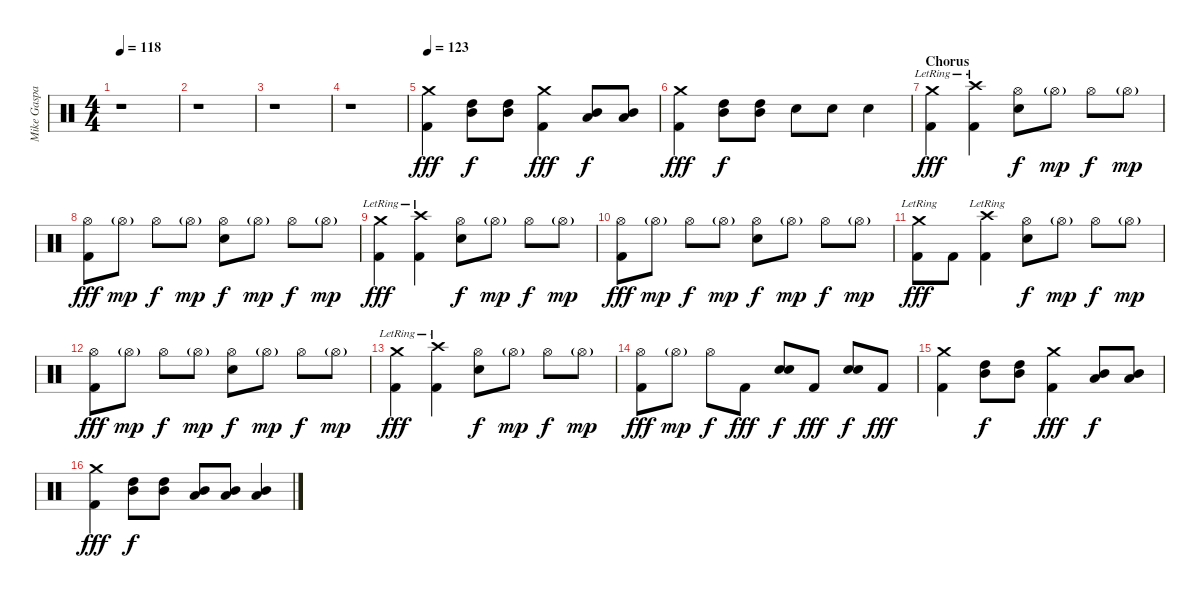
\track ("Mike Gaspar (Drums)" "Mike Gaspa") {instrument percussion}
\staff {score}
\articulation defaults
\ts (4 4)
\tempo 118
\clef neutral
\ks c
r.1{dy f} |
r.1 |
r.1 |
r.1 |
\tempo 123
("Crash medium (hit)" "Kick (hit) 2").4{dy fff} ("High Tom (hit)" "Mid Tom (hit)").8{dy f} ("High Tom (hit)" "Mid Tom (hit)").8 ("Crash medium (hit)" "Kick (hit) 2").4{dy fff} ("Mid Tom (hit)" "Low Tom (hit)").8{dy f} ("Mid Tom (hit)" "Low Tom (hit)").8 |
("Crash medium (hit)" "Kick (hit) 2").4{dy fff} ("High Tom (hit)" "Mid Tom (hit)").8{dy f} ("High Tom (hit)" "Mid Tom (hit)").8 "Snare (hit) 2".8 "Snare (hit) 2".8 "Snare (hit) 2".4 |
\section ("" "Chorus")
("Crash medium (hit)"{lr} "Kick (hit) 2").4{dy fff} ("Crash high (hit)"{lr} "Kick (hit) 2").4 ("Hi-Hat (open)" "Snare (hit) 2").8{dy f} "Hi-Hat (open)"{g}.8{dy mp} "Hi-Hat (open)".8{dy f} "Hi-Hat (open)"{g}.8{dy mp} |
("Hi-Hat (open)" "Kick (hit) 2").8{dy fff} "Hi-Hat (open)"{g}.8{dy mp} "Hi-Hat (open)".8{dy f} "Hi-Hat (open)"{g}.8{dy mp} ("Hi-Hat (open)" "Snare (hit) 2").8{dy f} "Hi-Hat (open)"{g}.8{dy mp} "Hi-Hat (open)".8{dy f} "Hi-Hat (open)"{g}.8{dy mp} |
("Crash medium (hit)"{lr} "Kick (hit) 2").4{dy fff} ("Crash high (hit)"{lr} "Kick (hit) 2").4 ("Hi-Hat (open)" "Snare (hit) 2").8{dy f} "Hi-Hat (open)"{g}.8{dy mp} "Hi-Hat (open)".8{dy f} "Hi-Hat (open)"{g}.8{dy mp} |
("Hi-Hat (open)" "Kick (hit) 2").8{dy fff} "Hi-Hat (open)"{g}.8{dy mp} "Hi-Hat (open)".8{dy f} "Hi-Hat (open)"{g}.8{dy mp} ("Hi-Hat (open)" "Snare (hit) 2").8{dy f} "Hi-Hat (open)"{g}.8{dy mp} "Hi-Hat (open)".8{dy f} "Hi-Hat (open)"{g}.8{dy mp} |
("Crash medium (hit)"{lr} "Kick (hit) 2").8{dy fff} "Kick (hit) 2".8 ("Crash high (hit)"{lr} "Kick (hit) 2").4 ("Hi-Hat (open)" "Snare (hit) 2").8{dy f} "Hi-Hat (open)"{g}.8{dy mp} "Hi-Hat (open)".8{dy f} "Hi-Hat (open)"{g}.8{dy mp} |
("Hi-Hat (open)" "Kick (hit) 2").8{dy fff} "Hi-Hat (open)"{g}.8{dy mp} "Hi-Hat (open)".8{dy f} "Hi-Hat (open)"{g}.8{dy mp} ("Hi-Hat (open)" "Snare (hit) 2").8{dy f} "Hi-Hat (open)"{g}.8{dy mp} "Hi-Hat (open)".8{dy f} "Hi-Hat (open)"{g}.8{dy mp} |
("Crash medium (hit)"{lr} "Kick (hit) 2").4{dy fff} ("Crash high (hit)"{lr} "Kick (hit) 2").4 ("Hi-Hat (open)" "Snare (hit) 2").8{dy f} "Hi-Hat (open)"{g}.8{dy mp} "Hi-Hat (open)".8{dy f} "Hi-Hat (open)"{g}.8{dy mp} |
("Hi-Hat (open)" "Kick (hit) 2").8{dy fff} "Hi-Hat (open)"{g}.8{dy mp} "Hi-Hat (open)".8{dy f} "Kick (hit) 2".8{dy fff} ("Snare (hit) 2" "Snare (hit) 2").8{bd 30 dy f} "Kick (hit) 2".8{dy fff} ("Snare (hit) 2" "Snare (hit) 2").8{bd 30 dy f} "Kick (hit) 2".8{dy fff} |
("Crash medium (hit)" "Kick (hit) 2").4 ("High Tom (hit)" "Mid Tom (hit)").8{dy f} ("High Tom (hit)" "Mid Tom (hit)").8 ("Crash medium (hit)" "Kick (hit) 2").4{dy fff} ("Mid Tom (hit)" "Low Tom (hit)").8{dy f} ("Mid Tom (hit)" "Low Tom (hit)").8 |
("Crash medium (hit)" "Kick (hit) 2").4{dy fff} ("High Tom (hit)" "Mid Tom (hit)").8{dy f} ("High Tom (hit)" "Mid Tom (hit)").8 ("Mid Tom (hit)" "Low Tom (hit)").8 ("Mid Tom (hit)" "Low Tom (hit)").8 ("Mid Tom (hit)" "Low Tom (hit)").4
